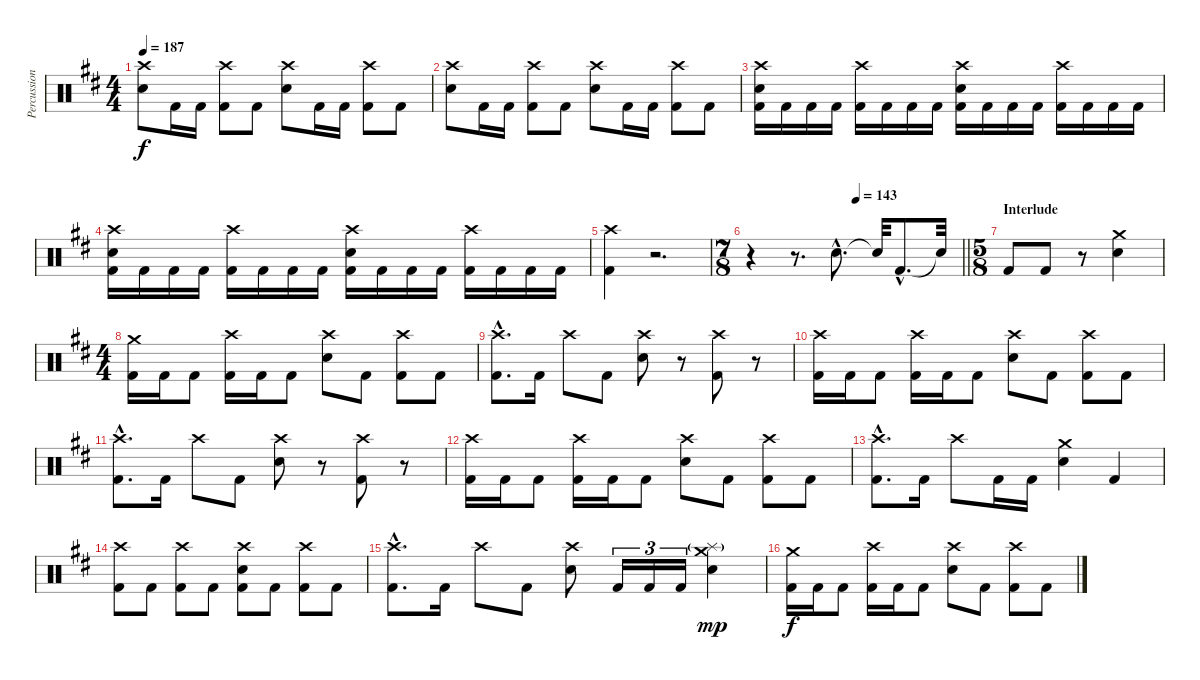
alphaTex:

\track ("Percussion" "Percussion") {instrument percussion}
\staff {score}
\articulation defaults
\ts (4 4)
\tempo 187
\clef neutral
\ks d
("Crash high (hit)" "Snare (hit) 2").8{dy f} "Kick (hit) 2".16 "Kick (hit) 2".16 ("Crash high (hit)" "Kick (hit) 2").8 "Kick (hit) 2".8 ("Crash high (hit)" "Snare (hit) 2").8 "Kick (hit) 2".16 "Kick (hit) 2".16 ("Crash high (hit)" "Kick (hit) 2").8 "Kick (hit) 2".8 |
("Crash high (hit)" "Snare (hit) 2").8 "Kick (hit) 2".16 "Kick (hit) 2".16 ("Crash high (hit)" "Kick (hit) 2").8 "Kick (hit) 2".8 ("Crash high (hit)" "Snare (hit) 2").8 "Kick (hit) 2".16 "Kick (hit) 2".16 ("Crash high (hit)" "Kick (hit) 2").8 "Kick (hit) 2".8 |
("Crash high (hit)" "Snare (hit) 2" "Kick (hit) 2").16 "Kick (hit) 2".16 "Kick (hit) 2".16 "Kick (hit) 2".16 ("Crash high (hit)" "Kick (hit) 2").16 "Kick (hit) 2".16 "Kick (hit) 2".16 "Kick (hit) 2".16 ("Crash high (hit)" "Snare (hit) 2" "Kick (hit) 2").16 "Kick (hit) 2".16 "Kick (hit) 2".16 "Kick (hit) 2".16 ("Crash high (hit)" "Kick (hit) 2").16 "Kick (hit) 2".16 "Kick (hit) 2".16 "Kick (hit) 2".16 |
("Crash high (hit)" "Snare (hit) 2" "Kick (hit) 2").16 "Kick (hit) 2".16 "Kick (hit) 2".16 "Kick (hit) 2".16 ("Crash high (hit)" "Kick (hit) 2").16 "Kick (hit) 2".16 "Kick (hit) 2".16 "Kick (hit) 2".16 ("Crash high (hit)" "Snare (hit) 2" "Kick (hit) 2").16 "Kick (hit) 2".16 "Kick (hit) 2".16 "Kick (hit) 2".16 ("Crash high (hit)" "Kick (hit) 2").16 "Kick (hit) 2".16 "Kick (hit) 2".16 "Kick (hit) 2".16 |
("Crash high (hit)" "Kick (hit) 2").4 r.2{d volume 0} |
\ts (7 8)
\tempo (143 0.5)
\barLineRight lightlight
r.4 r.8{d} "Snare (hit) 2"{hac}.8{d volume 16} "Snare (hit)"{t}.32 "Kick (hit) 2"{hac}.8{d} "Snare (hit)"{t}.32 |
\ts (5 8)
\section ("" "Interlude")
"Kick (hit) 2".8 "Kick (hit) 2".8 r.8 ("Crash medium (hit)" "Snare (hit) 2").4 |
\ts (4 4)
("Crash medium (hit)" "Kick (hit) 2").16 "Kick (hit) 2".16 "Kick (hit) 2".8 ("Crash high (hit)" "Kick (hit) 2").16 "Kick (hit) 2".16 "Kick (hit) 2".8 ("Crash high (hit)" "Snare (hit) 2").8 "Kick (hit) 2".8 ("Crash high (hit)" "Kick (hit) 2").8 "Kick (hit) 2".8 |
("Crash high (hit)"{hac} "Kick (hit) 2"{hac}).8{d} "Kick (hit) 2".16 "Crash high (hit)".8 "Kick (hit) 2".8 ("Crash high (hit)" "Snare (hit) 2").8 r.8 ("Crash high (hit)" "Kick (hit) 2").8 r.8 |
("Crash high (hit)" "Kick (hit) 2").16 "Kick (hit) 2".16 "Kick (hit) 2".8 ("Crash high (hit)" "Kick (hit) 2").16 "Kick (hit) 2".16 "Kick (hit) 2".8 ("Crash high (hit)" "Snare (hit) 2").8 "Kick (hit) 2".8 ("Crash high (hit)" "Kick (hit) 2").8 "Kick (hit) 2".8 |
("Crash high (hit)"{hac} "Kick (hit) 2"{hac}).8{d} "Kick (hit) 2".16 "Crash high (hit)".8 "Kick (hit) 2".8 ("Crash high (hit)" "Snare (hit) 2").8 r.8 ("Crash high (hit)" "Kick (hit) 2").8 r.8 |
("Crash high (hit)" "Kick (hit) 2").16 "Kick (hit) 2".16 "Kick (hit) 2".8 ("Crash high (hit)" "Kick (hit) 2").16 "Kick (hit) 2".16 "Kick (hit) 2".8 ("Crash high (hit)" "Snare (hit) 2").8 "Kick (hit) 2".8 ("Crash high (hit)" "Kick (hit) 2").8 "Kick (hit) 2".8 |
("Crash high (hit)"{hac} "Kick (hit) 2"{hac}).8{d} "Kick (hit) 2".16 "Crash high (hit)".8 "Kick (hit) 2".16 "Kick (hit) 2".16 ("Crash medium (hit)" "Snare (hit) 2").4 "Kick (hit) 2".4 |
("Crash high (hit)" "Kick (hit) 2").8 "Kick (hit) 2".8 ("Crash high (hit)" "Kick (hit) 2").8 "Kick (hit) 2".8 ("Crash high (hit)" "Snare (hit) 2" "Kick (hit) 2").8 "Kick (hit) 2".8 ("Crash high (hit)" "Kick (hit) 2").8 "Kick (hit) 2".8 |
("Crash high (hit)"{hac} "Kick (hit) 2"{hac}).8{d} "Kick (hit) 2".16 "Crash high (hit)".8 "Kick (hit) 2".8 ("Crash high (hit)" "Snare (hit) 2").8 "Kick (hit) 2".16{tu (3 2)} "Kick (hit) 2".16{tu (3 2)} "Kick (hit) 2".16{tu (3 2)} ("Splash (hit)"{g} "Crash medium (hit)" "Snare (hit) 2").4{dy mp} |
("Crash medium (hit)" "Kick (hit) 2").16{dy f} "Kick (hit) 2".16 "Kick (hit) 2".8 ("Crash high (hit)" "Kick (hit) 2").16 "Kick (hit) 2".16 "Kick (hit) 2".8 ("Crash high (hit)" "Snare (hit) 2").8 "Kick (hit) 2".8 ("Crash high (hit)" "Kick (hit) 2").8 "Kick (hit) 2".8
